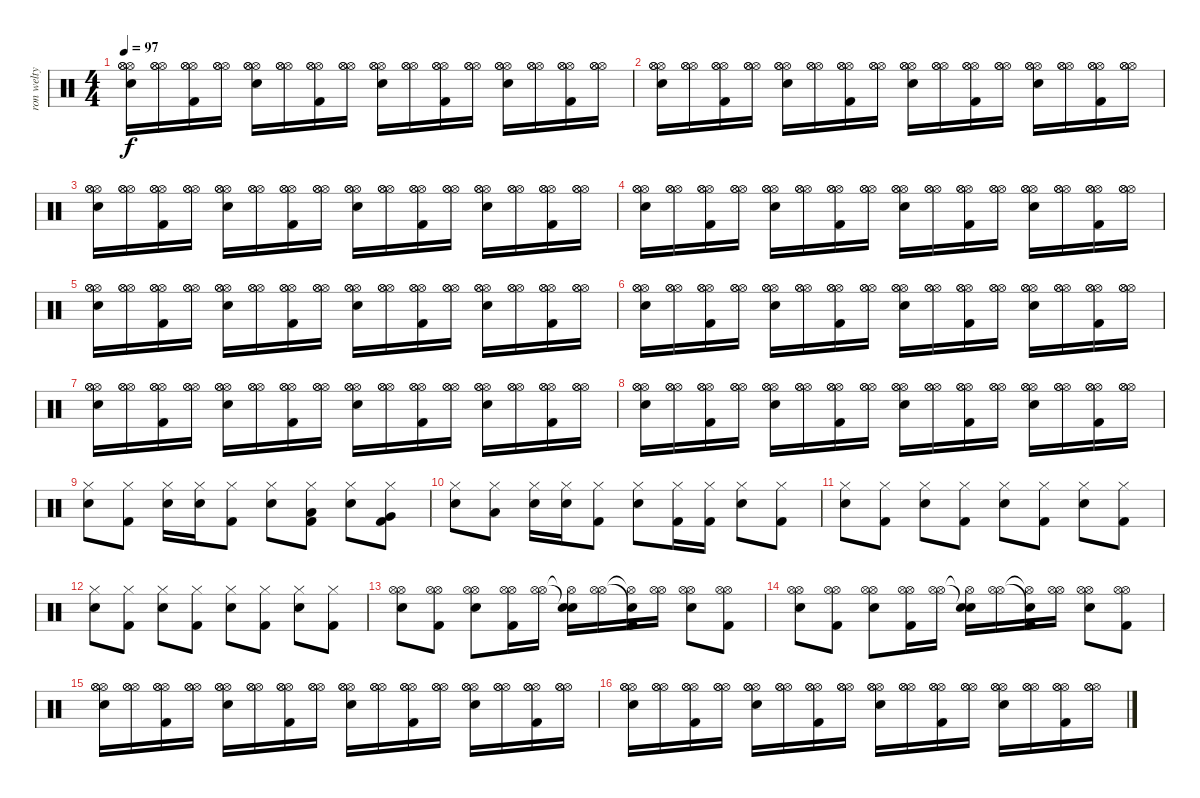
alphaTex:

\track ("ron welty" "ron welty") {instrument percussion}
\staff {score}
\articulation defaults
\ts (4 4)
\tempo 97
\clef neutral
\ks c
("Hi-Hat (open)" "Hi-Hat (open)" "Hi-Hat (open)" "Electric Snare (hit)").16{dy f volume 12} ("Hi-Hat (open)" "Hi-Hat (open)" "Hi-Hat (open)").16 ("Hi-Hat (open)" "Hi-Hat (open)" "Hi-Hat (open)" "Kick (hit) 2").16 ("Hi-Hat (open)" "Hi-Hat (open)" "Hi-Hat (open)").16 ("Hi-Hat (open)" "Hi-Hat (open)" "Hi-Hat (open)" "Electric Snare (hit)").16 ("Hi-Hat (open)" "Hi-Hat (open)" "Hi-Hat (open)").16 ("Hi-Hat (open)" "Hi-Hat (open)" "Hi-Hat (open)" "Kick (hit) 2").16 ("Hi-Hat (open)" "Hi-Hat (open)" "Hi-Hat (open)").16 ("Hi-Hat (open)" "Hi-Hat (open)" "Hi-Hat (open)" "Electric Snare (hit)").16 ("Hi-Hat (open)" "Hi-Hat (open)" "Hi-Hat (open)").16 ("Hi-Hat (open)" "Hi-Hat (open)" "Hi-Hat (open)" "Kick (hit) 2").16 ("Hi-Hat (open)" "Hi-Hat (open)" "Hi-Hat (open)").16 ("Hi-Hat (open)" "Hi-Hat (open)" "Hi-Hat (open)" "Electric Snare (hit)").16 ("Hi-Hat (open)" "Hi-Hat (open)" "Hi-Hat (open)").16 ("Hi-Hat (open)" "Hi-Hat (open)" "Hi-Hat (open)" "Kick (hit) 2").16 ("Hi-Hat (open)" "Hi-Hat (open)" "Hi-Hat (open)").16 |
("Hi-Hat (open)" "Hi-Hat (open)" "Hi-Hat (open)" "Electric Snare (hit)").16{volume 12} ("Hi-Hat (open)" "Hi-Hat (open)" "Hi-Hat (open)").16 ("Hi-Hat (open)" "Hi-Hat (open)" "Hi-Hat (open)" "Kick (hit) 2").16 ("Hi-Hat (open)" "Hi-Hat (open)" "Hi-Hat (open)").16 ("Hi-Hat (open)" "Hi-Hat (open)" "Hi-Hat (open)" "Electric Snare (hit)").16 ("Hi-Hat (open)" "Hi-Hat (open)" "Hi-Hat (open)").16 ("Hi-Hat (open)" "Hi-Hat (open)" "Hi-Hat (open)" "Kick (hit) 2").16 ("Hi-Hat (open)" "Hi-Hat (open)" "Hi-Hat (open)").16 ("Hi-Hat (open)" "Hi-Hat (open)" "Hi-Hat (open)" "Electric Snare (hit)").16 ("Hi-Hat (open)" "Hi-Hat (open)" "Hi-Hat (open)").16 ("Hi-Hat (open)" "Hi-Hat (open)" "Hi-Hat (open)" "Kick (hit) 2").16 ("Hi-Hat (open)" "Hi-Hat (open)" "Hi-Hat (open)").16 ("Hi-Hat (open)" "Hi-Hat (open)" "Hi-Hat (open)" "Electric Snare (hit)").16 ("Hi-Hat (open)" "Hi-Hat (open)" "Hi-Hat (open)").16 ("Hi-Hat (open)" "Hi-Hat (open)" "Hi-Hat (open)" "Kick (hit) 2").16 ("Hi-Hat (open)" "Hi-Hat (open)" "Hi-Hat (open)").16 |
("Hi-Hat (open)" "Hi-Hat (open)" "Hi-Hat (open)" "Electric Snare (hit)").16{volume 12} ("Hi-Hat (open)" "Hi-Hat (open)" "Hi-Hat (open)").16 ("Hi-Hat (open)" "Hi-Hat (open)" "Hi-Hat (open)" "Kick (hit) 2").16 ("Hi-Hat (open)" "Hi-Hat (open)" "Hi-Hat (open)").16 ("Hi-Hat (open)" "Hi-Hat (open)" "Hi-Hat (open)" "Electric Snare (hit)").16 ("Hi-Hat (open)" "Hi-Hat (open)" "Hi-Hat (open)").16 ("Hi-Hat (open)" "Hi-Hat (open)" "Hi-Hat (open)" "Kick (hit) 2").16 ("Hi-Hat (open)" "Hi-Hat (open)" "Hi-Hat (open)").16 ("Hi-Hat (open)" "Hi-Hat (open)" "Hi-Hat (open)" "Electric Snare (hit)").16 ("Hi-Hat (open)" "Hi-Hat (open)" "Hi-Hat (open)").16 ("Hi-Hat (open)" "Hi-Hat (open)" "Hi-Hat (open)" "Kick (hit) 2").16 ("Hi-Hat (open)" "Hi-Hat (open)" "Hi-Hat (open)").16 ("Hi-Hat (open)" "Hi-Hat (open)" "Hi-Hat (open)" "Electric Snare (hit)").16 ("Hi-Hat (open)" "Hi-Hat (open)" "Hi-Hat (open)").16 ("Hi-Hat (open)" "Hi-Hat (open)" "Hi-Hat (open)" "Kick (hit) 2").16 ("Hi-Hat (open)" "Hi-Hat (open)" "Hi-Hat (open)").16 |
("Hi-Hat (open)" "Hi-Hat (open)" "Hi-Hat (open)" "Electric Snare (hit)").16{volume 12} ("Hi-Hat (open)" "Hi-Hat (open)" "Hi-Hat (open)").16 ("Hi-Hat (open)" "Hi-Hat (open)" "Hi-Hat (open)" "Kick (hit) 2").16 ("Hi-Hat (open)" "Hi-Hat (open)" "Hi-Hat (open)").16 ("Hi-Hat (open)" "Hi-Hat (open)" "Hi-Hat (open)" "Electric Snare (hit)").16 ("Hi-Hat (open)" "Hi-Hat (open)" "Hi-Hat (open)").16 ("Hi-Hat (open)" "Hi-Hat (open)" "Hi-Hat (open)" "Kick (hit) 2").16 ("Hi-Hat (open)" "Hi-Hat (open)" "Hi-Hat (open)").16 ("Hi-Hat (open)" "Hi-Hat (open)" "Hi-Hat (open)" "Electric Snare (hit)").16 ("Hi-Hat (open)" "Hi-Hat (open)" "Hi-Hat (open)").16 ("Hi-Hat (open)" "Hi-Hat (open)" "Hi-Hat (open)" "Kick (hit) 2").16 ("Hi-Hat (open)" "Hi-Hat (open)" "Hi-Hat (open)").16 ("Hi-Hat (open)" "Hi-Hat (open)" "Hi-Hat (open)" "Electric Snare (hit)").16 ("Hi-Hat (open)" "Hi-Hat (open)" "Hi-Hat (open)").16 ("Hi-Hat (open)" "Hi-Hat (open)" "Hi-Hat (open)" "Kick (hit) 2").16 ("Hi-Hat (open)" "Hi-Hat (open)" "Hi-Hat (open)").16 |
("Hi-Hat (open)" "Hi-Hat (open)" "Hi-Hat (open)" "Electric Snare (hit)").16{volume 12} ("Hi-Hat (open)" "Hi-Hat (open)" "Hi-Hat (open)").16 ("Hi-Hat (open)" "Hi-Hat (open)" "Hi-Hat (open)" "Kick (hit) 2").16 ("Hi-Hat (open)" "Hi-Hat (open)" "Hi-Hat (open)").16 ("Hi-Hat (open)" "Hi-Hat (open)" "Hi-Hat (open)" "Electric Snare (hit)").16 ("Hi-Hat (open)" "Hi-Hat (open)" "Hi-Hat (open)").16 ("Hi-Hat (open)" "Hi-Hat (open)" "Hi-Hat (open)" "Kick (hit) 2").16 ("Hi-Hat (open)" "Hi-Hat (open)" "Hi-Hat (open)").16 ("Hi-Hat (open)" "Hi-Hat (open)" "Hi-Hat (open)" "Electric Snare (hit)").16 ("Hi-Hat (open)" "Hi-Hat (open)" "Hi-Hat (open)").16 ("Hi-Hat (open)" "Hi-Hat (open)" "Hi-Hat (open)" "Kick (hit) 2").16 ("Hi-Hat (open)" "Hi-Hat (open)" "Hi-Hat (open)").16 ("Hi-Hat (open)" "Hi-Hat (open)" "Hi-Hat (open)" "Electric Snare (hit)").16 ("Hi-Hat (open)" "Hi-Hat (open)" "Hi-Hat (open)").16 ("Hi-Hat (open)" "Hi-Hat (open)" "Hi-Hat (open)" "Kick (hit) 2").16 ("Hi-Hat (open)" "Hi-Hat (open)" "Hi-Hat (open)").16 |
("Hi-Hat (open)" "Hi-Hat (open)" "Hi-Hat (open)" "Electric Snare (hit)").16{volume 12} ("Hi-Hat (open)" "Hi-Hat (open)" "Hi-Hat (open)").16 ("Hi-Hat (open)" "Hi-Hat (open)" "Hi-Hat (open)" "Kick (hit) 2").16 ("Hi-Hat (open)" "Hi-Hat (open)" "Hi-Hat (open)").16 ("Hi-Hat (open)" "Hi-Hat (open)" "Hi-Hat (open)" "Electric Snare (hit)").16 ("Hi-Hat (open)" "Hi-Hat (open)" "Hi-Hat (open)").16 ("Hi-Hat (open)" "Hi-Hat (open)" "Hi-Hat (open)" "Kick (hit) 2").16 ("Hi-Hat (open)" "Hi-Hat (open)" "Hi-Hat (open)").16 ("Hi-Hat (open)" "Hi-Hat (open)" "Hi-Hat (open)" "Electric Snare (hit)").16 ("Hi-Hat (open)" "Hi-Hat (open)" "Hi-Hat (open)").16 ("Hi-Hat (open)" "Hi-Hat (open)" "Hi-Hat (open)" "Kick (hit) 2").16 ("Hi-Hat (open)" "Hi-Hat (open)" "Hi-Hat (open)").16 ("Hi-Hat (open)" "Hi-Hat (open)" "Hi-Hat (open)" "Electric Snare (hit)").16 ("Hi-Hat (open)" "Hi-Hat (open)" "Hi-Hat (open)").16 ("Hi-Hat (open)" "Hi-Hat (open)" "Hi-Hat (open)" "Kick (hit) 2").16 ("Hi-Hat (open)" "Hi-Hat (open)" "Hi-Hat (open)").16 |
("Hi-Hat (open)" "Hi-Hat (open)" "Hi-Hat (open)" "Electric Snare (hit)").16{volume 12} ("Hi-Hat (open)" "Hi-Hat (open)" "Hi-Hat (open)").16 ("Hi-Hat (open)" "Hi-Hat (open)" "Hi-Hat (open)" "Kick (hit) 2").16 ("Hi-Hat (open)" "Hi-Hat (open)" "Hi-Hat (open)").16 ("Hi-Hat (open)" "Hi-Hat (open)" "Hi-Hat (open)" "Electric Snare (hit)").16 ("Hi-Hat (open)" "Hi-Hat (open)" "Hi-Hat (open)").16 ("Hi-Hat (open)" "Hi-Hat (open)" "Hi-Hat (open)" "Kick (hit) 2").16 ("Hi-Hat (open)" "Hi-Hat (open)" "Hi-Hat (open)").16 ("Hi-Hat (open)" "Hi-Hat (open)" "Hi-Hat (open)" "Electric Snare (hit)").16 ("Hi-Hat (open)" "Hi-Hat (open)" "Hi-Hat (open)").16 ("Hi-Hat (open)" "Hi-Hat (open)" "Hi-Hat (open)" "Kick (hit) 2").16 ("Hi-Hat (open)" "Hi-Hat (open)" "Hi-Hat (open)").16 ("Hi-Hat (open)" "Hi-Hat (open)" "Hi-Hat (open)" "Electric Snare (hit)").16 ("Hi-Hat (open)" "Hi-Hat (open)" "Hi-Hat (open)").16 ("Hi-Hat (open)" "Hi-Hat (open)" "Hi-Hat (open)" "Kick (hit) 2").16 ("Hi-Hat (open)" "Hi-Hat (open)" "Hi-Hat (open)").16 |
("Hi-Hat (open)" "Hi-Hat (open)" "Hi-Hat (open)" "Electric Snare (hit)").16{volume 12} ("Hi-Hat (open)" "Hi-Hat (open)" "Hi-Hat (open)").16 ("Hi-Hat (open)" "Hi-Hat (open)" "Hi-Hat (open)" "Kick (hit) 2").16 ("Hi-Hat (open)" "Hi-Hat (open)" "Hi-Hat (open)").16 ("Hi-Hat (open)" "Hi-Hat (open)" "Hi-Hat (open)" "Electric Snare (hit)").16 ("Hi-Hat (open)" "Hi-Hat (open)" "Hi-Hat (open)").16 ("Hi-Hat (open)" "Hi-Hat (open)" "Hi-Hat (open)" "Kick (hit) 2").16 ("Hi-Hat (open)" "Hi-Hat (open)" "Hi-Hat (open)").16 ("Hi-Hat (open)" "Hi-Hat (open)" "Hi-Hat (open)" "Electric Snare (hit)").16 ("Hi-Hat (open)" "Hi-Hat (open)" "Hi-Hat (open)").16 ("Hi-Hat (open)" "Hi-Hat (open)" "Hi-Hat (open)" "Kick (hit) 2").16 ("Hi-Hat (open)" "Hi-Hat (open)" "Hi-Hat (open)").16 ("Hi-Hat (open)" "Hi-Hat (open)" "Hi-Hat (open)" "Electric Snare (hit)").16 ("Hi-Hat (open)" "Hi-Hat (open)" "Hi-Hat (open)").16 ("Hi-Hat (open)" "Hi-Hat (open)" "Hi-Hat (open)" "Kick (hit) 2").16 ("Hi-Hat (open)" "Hi-Hat (open)" "Hi-Hat (open)").16 |
("Hi-Hat (closed)" "Electric Snare (hit)").8 ("Hi-Hat (closed)" "Kick (hit) 2").8 ("Hi-Hat (closed)" "Electric Snare (hit)").16 ("Hi-Hat (closed)" "Electric Snare (hit)").16 ("Hi-Hat (closed)" "Kick (hit) 2").8 ("Hi-Hat (closed)" "Electric Snare (hit)").8 ("Hi-Hat (closed)" "Low Tom (hit)" "Kick (hit) 2").8 ("Hi-Hat (closed)" "Electric Snare (hit)").8 ("Hi-Hat (closed)" "Very Low Tom (hit)" "Kick (hit) 2").8 |
("Hi-Hat (closed)" "Electric Snare (hit)").8 ("Hi-Hat (closed)" "Low Tom (hit)").8 ("Hi-Hat (closed)" "Electric Snare (hit)").16 ("Hi-Hat (closed)" "Electric Snare (hit)").16 ("Hi-Hat (closed)" "Kick (hit) 2").8 ("Hi-Hat (closed)" "Electric Snare (hit)").8 ("Hi-Hat (closed)" "Kick (hit) 2").16 ("Hi-Hat (closed)" "Kick (hit) 2").16 ("Hi-Hat (closed)" "Electric Snare (hit)").8 ("Hi-Hat (closed)" "Kick (hit) 2").8 |
("Hi-Hat (closed)" "Electric Snare (hit)").8 ("Hi-Hat (closed)" "Kick (hit) 2").8 ("Hi-Hat (closed)" "Electric Snare (hit)").8 ("Hi-Hat (closed)" "Kick (hit) 2").8 ("Hi-Hat (closed)" "Electric Snare (hit)").8 ("Hi-Hat (closed)" "Kick (hit) 2").8 ("Hi-Hat (closed)" "Electric Snare (hit)").8 ("Hi-Hat (closed)" "Kick (hit) 2").8 |
("Hi-Hat (closed)" "Electric Snare (hit)").8 ("Hi-Hat (closed)" "Kick (hit) 2").8 ("Hi-Hat (closed)" "Electric Snare (hit)").8 ("Hi-Hat (closed)" "Kick (hit) 2").8 ("Hi-Hat (closed)" "Electric Snare (hit)").8 ("Hi-Hat (closed)" "Kick (hit) 2").8 ("Hi-Hat (closed)" "Electric Snare (hit)").8 ("Hi-Hat (closed)" "Kick (hit) 2").8 |
("Hi-Hat (open)" "Hi-Hat (open)" "Electric Snare (hit)").8 ("Hi-Hat (open)" "Hi-Hat (open)" "Kick (hit) 2").8 ("Hi-Hat (open)" "Hi-Hat (open)" "Electric Snare (hit)").8 ("Hi-Hat (open)" "Hi-Hat (open)" "Kick (hit) 2").16 ("Hi-Hat (open)" "Hi-Hat (open)").16 ("Hi-Hat (open)"{t} "Snare (hit)"{t} "Electric Snare (hit)").16 ("Hi-Hat (open)" "Hi-Hat (open)").16 ("Hi-Hat (open)"{t} "Snare (hit)"{t} "Kick (hit) 2").16 ("Hi-Hat (open)" "Hi-Hat (open)").16 ("Hi-Hat (open)" "Hi-Hat (open)" "Electric Snare (hit)").8 ("Hi-Hat (open)" "Hi-Hat (open)" "Kick (hit) 2").8 |
("Hi-Hat (open)" "Hi-Hat (open)" "Electric Snare (hit)").8 ("Hi-Hat (open)" "Hi-Hat (open)" "Kick (hit) 2").8 ("Hi-Hat (open)" "Hi-Hat (open)" "Electric Snare (hit)").8 ("Hi-Hat (open)" "Hi-Hat (open)" "Kick (hit) 2").16 ("Hi-Hat (open)" "Hi-Hat (open)").16 ("Hi-Hat (open)"{t} "Snare (hit)"{t} "Electric Snare (hit)").16 ("Hi-Hat (open)" "Hi-Hat (open)").16 ("Hi-Hat (open)"{t} "Snare (hit)"{t} "Kick (hit) 2").16 ("Hi-Hat (open)" "Hi-Hat (open)").16 ("Hi-Hat (open)" "Hi-Hat (open)" "Electric Snare (hit)").8 ("Hi-Hat (open)" "Hi-Hat (open)" "Kick (hit) 2").8 |
("Hi-Hat (open)" "Hi-Hat (open)" "Hi-Hat (open)" "Electric Snare (hit)").16{volume 12} ("Hi-Hat (open)" "Hi-Hat (open)" "Hi-Hat (open)").16 ("Hi-Hat (open)" "Hi-Hat (open)" "Hi-Hat (open)" "Kick (hit) 2").16 ("Hi-Hat (open)" "Hi-Hat (open)" "Hi-Hat (open)").16 ("Hi-Hat (open)" "Hi-Hat (open)" "Hi-Hat (open)" "Electric Snare (hit)").16 ("Hi-Hat (open)" "Hi-Hat (open)" "Hi-Hat (open)").16 ("Hi-Hat (open)" "Hi-Hat (open)" "Hi-Hat (open)" "Kick (hit) 2").16 ("Hi-Hat (open)" "Hi-Hat (open)" "Hi-Hat (open)").16 ("Hi-Hat (open)" "Hi-Hat (open)" "Hi-Hat (open)" "Electric Snare (hit)").16 ("Hi-Hat (open)" "Hi-Hat (open)" "Hi-Hat (open)").16 ("Hi-Hat (open)" "Hi-Hat (open)" "Hi-Hat (open)" "Kick (hit) 2").16 ("Hi-Hat (open)" "Hi-Hat (open)" "Hi-Hat (open)").16 ("Hi-Hat (open)" "Hi-Hat (open)" "Hi-Hat (open)" "Electric Snare (hit)").16 ("Hi-Hat (open)" "Hi-Hat (open)" "Hi-Hat (open)").16 ("Hi-Hat (open)" "Hi-Hat (open)" "Hi-Hat (open)" "Kick (hit) 2").16 ("Hi-Hat (open)" "Hi-Hat (open)" "Hi-Hat (open)").16 |
("Hi-Hat (open)" "Hi-Hat (open)" "Hi-Hat (open)" "Electric Snare (hit)").16{volume 12} ("Hi-Hat (open)" "Hi-Hat (open)" "Hi-Hat (open)").16 ("Hi-Hat (open)" "Hi-Hat (open)" "Hi-Hat (open)" "Kick (hit) 2").16 ("Hi-Hat (open)" "Hi-Hat (open)" "Hi-Hat (open)").16 ("Hi-Hat (open)" "Hi-Hat (open)" "Hi-Hat (open)" "Electric Snare (hit)").16 ("Hi-Hat (open)" "Hi-Hat (open)" "Hi-Hat (open)").16 ("Hi-Hat (open)" "Hi-Hat (open)" "Hi-Hat (open)" "Kick (hit) 2").16 ("Hi-Hat (open)" "Hi-Hat (open)" "Hi-Hat (open)").16 ("Hi-Hat (open)" "Hi-Hat (open)" "Hi-Hat (open)" "Electric Snare (hit)").16 ("Hi-Hat (open)" "Hi-Hat (open)" "Hi-Hat (open)").16 ("Hi-Hat (open)" "Hi-Hat (open)" "Hi-Hat (open)" "Kick (hit) 2").16 ("Hi-Hat (open)" "Hi-Hat (open)" "Hi-Hat (open)").16 ("Hi-Hat (open)" "Hi-Hat (open)" "Hi-Hat (open)" "Electric Snare (hit)").16 ("Hi-Hat (open)" "Hi-Hat (open)" "Hi-Hat (open)").16 ("Hi-Hat (open)" "Hi-Hat (open)" "Hi-Hat (open)" "Kick (hit) 2").16 ("Hi-Hat (open)" "Hi-Hat (open)" "Hi-Hat (open)").16
